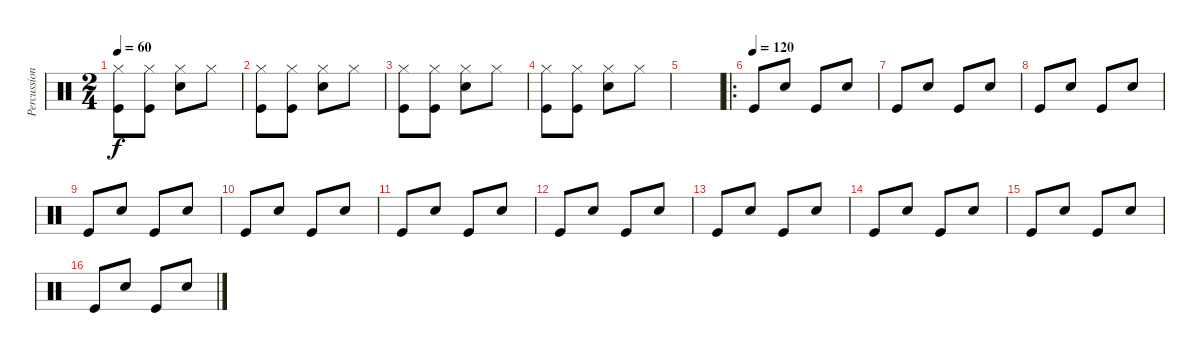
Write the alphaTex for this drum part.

\track ("Percussions" "Percussion") {instrument percussion}
\staff {score}
\articulation defaults
\ts (2 4)
\tempo 60
\clef neutral
\ks c
("Hi-Hat (closed)" "Kick (hit)").8{dy f} ("Hi-Hat (closed)" "Kick (hit)").8 ("Hi-Hat (closed)" "Electric Snare (hit)").8 "Hi-Hat (closed)".8 |
("Hi-Hat (closed)" "Kick (hit)").8 ("Hi-Hat (closed)" "Kick (hit)").8 ("Hi-Hat (closed)" "Electric Snare (hit)").8 "Hi-Hat (closed)".8 |
("Hi-Hat (closed)" "Kick (hit)").8 ("Hi-Hat (closed)" "Kick (hit)").8 ("Hi-Hat (closed)" "Electric Snare (hit)").8 "Hi-Hat (closed)".8 |
("Hi-Hat (closed)" "Kick (hit)").8 ("Hi-Hat (closed)" "Kick (hit)").8 ("Hi-Hat (closed)" "Electric Snare (hit)").8 "Hi-Hat (closed)".8 |
|
\ro
\tempo 135
\tempo (120)
"Kick (hit)".8 "Electric Snare (hit)".8 "Kick (hit)".8 "Electric Snare (hit)".8 |
"Kick (hit)".8 "Electric Snare (hit)".8 "Kick (hit)".8 "Electric Snare (hit)".8 |
"Kick (hit)".8 "Electric Snare (hit)".8 "Kick (hit)".8 "Electric Snare (hit)".8 |
"Kick (hit)".8 "Electric Snare (hit)".8 "Kick (hit)".8 "Electric Snare (hit)".8 |
"Kick (hit)".8 "Electric Snare (hit)".8 "Kick (hit)".8 "Electric Snare (hit)".8 |
"Kick (hit)".8 "Electric Snare (hit)".8 "Kick (hit)".8 "Electric Snare (hit)".8 |
"Kick (hit)".8 "Electric Snare (hit)".8 "Kick (hit)".8 "Electric Snare (hit)".8 |
"Kick (hit)".8 "Electric Snare (hit)".8 "Kick (hit)".8 "Electric Snare (hit)".8 |
"Kick (hit)".8 "Electric Snare (hit)".8 "Kick (hit)".8 "Electric Snare (hit)".8 |
"Kick (hit)".8 "Electric Snare (hit)".8 "Kick (hit)".8 "Electric Snare (hit)".8 |
"Kick (hit)".8 "Electric Snare (hit)".8 "Kick (hit)".8 "Electric Snare (hit)".8
